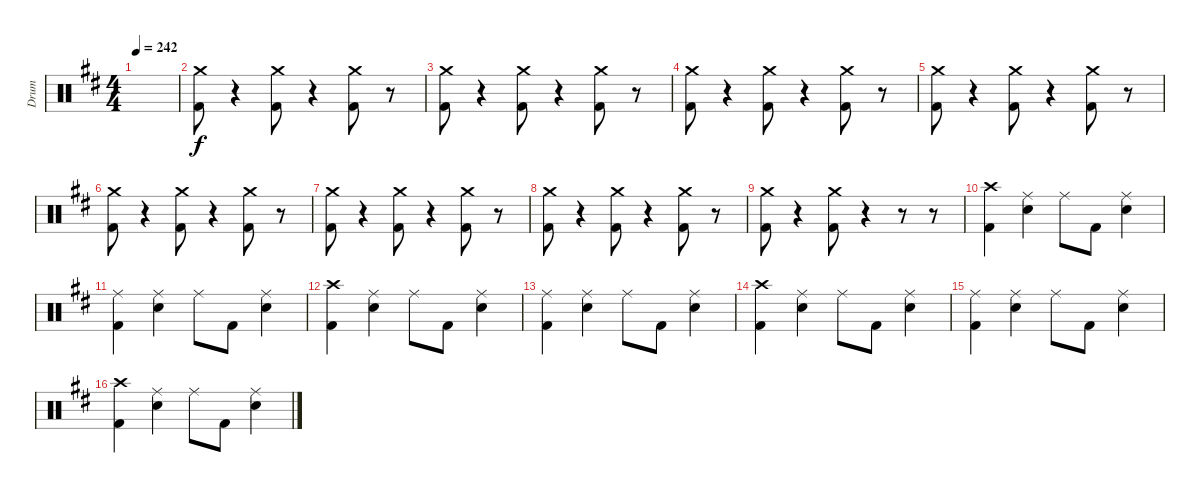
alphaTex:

\track ("Drum" "Drum") {instrument percussion}
\staff {score}
\articulation defaults
\ts (4 4)
\tempo 242
\clef neutral
\ks d
|
("Crash medium (hit)" "Kick (hit) 2").8 r.4 ("Crash medium (hit)" "Kick (hit) 2").8 r.4 ("Crash medium (hit)" "Kick (hit) 2").8 r.8 |
("Crash medium (hit)" "Kick (hit) 2").8 r.4 ("Crash medium (hit)" "Kick (hit) 2").8 r.4 ("Crash medium (hit)" "Kick (hit) 2").8 r.8 |
("Crash medium (hit)" "Kick (hit) 2").8 r.4 ("Crash medium (hit)" "Kick (hit) 2").8 r.4 ("Crash medium (hit)" "Kick (hit) 2").8 r.8 |
("Crash medium (hit)" "Kick (hit) 2").8 r.4 ("Crash medium (hit)" "Kick (hit) 2").8 r.4 ("Crash medium (hit)" "Kick (hit) 2").8 r.8 |
("Crash medium (hit)" "Kick (hit) 2").8 r.4 ("Crash medium (hit)" "Kick (hit) 2").8 r.4 ("Crash medium (hit)" "Kick (hit) 2").8 r.8 |
("Crash medium (hit)" "Kick (hit) 2").8 r.4 ("Crash medium (hit)" "Kick (hit) 2").8 r.4 ("Crash medium (hit)" "Kick (hit) 2").8 r.8 |
("Crash medium (hit)" "Kick (hit) 2").8 r.4 ("Crash medium (hit)" "Kick (hit) 2").8 r.4 ("Crash medium (hit)" "Kick (hit) 2").8 r.8 |
("Crash medium (hit)" "Kick (hit) 2").8 r.4 ("Crash medium (hit)" "Kick (hit) 2").8 r.4 r.8 r.8 |
("Crash high (hit)" "Kick (hit) 2").4 ("Ride (middle)" "Snare (hit) 2").4 "Ride (middle)".8 "Kick (hit) 2".8 ("Ride (middle)" "Snare (hit) 2").4 |
("Ride (middle)" "Kick (hit) 2").4 ("Ride (middle)" "Snare (hit) 2").4 "Ride (middle)".8 "Kick (hit) 2".8 ("Ride (middle)" "Snare (hit) 2").4 |
("Crash high (hit)" "Kick (hit) 2").4 ("Ride (middle)" "Snare (hit) 2").4 "Ride (middle)".8 "Kick (hit) 2".8 ("Ride (middle)" "Snare (hit) 2").4 |
("Ride (middle)" "Kick (hit) 2").4 ("Ride (middle)" "Snare (hit) 2").4 "Ride (middle)".8 "Kick (hit) 2".8 ("Ride (middle)" "Snare (hit) 2").4 |
("Crash high (hit)" "Kick (hit) 2").4 ("Ride (middle)" "Snare (hit) 2").4 "Ride (middle)".8 "Kick (hit) 2".8 ("Ride (middle)" "Snare (hit) 2").4 |
("Ride (middle)" "Kick (hit) 2").4 ("Ride (middle)" "Snare (hit) 2").4 "Ride (middle)".8 "Kick (hit) 2".8 ("Ride (middle)" "Snare (hit) 2").4 |
("Crash high (hit)" "Kick (hit) 2").4 ("Ride (middle)" "Snare (hit) 2").4 "Ride (middle)".8 "Kick (hit) 2".8 ("Ride (middle)" "Snare (hit) 2").4
